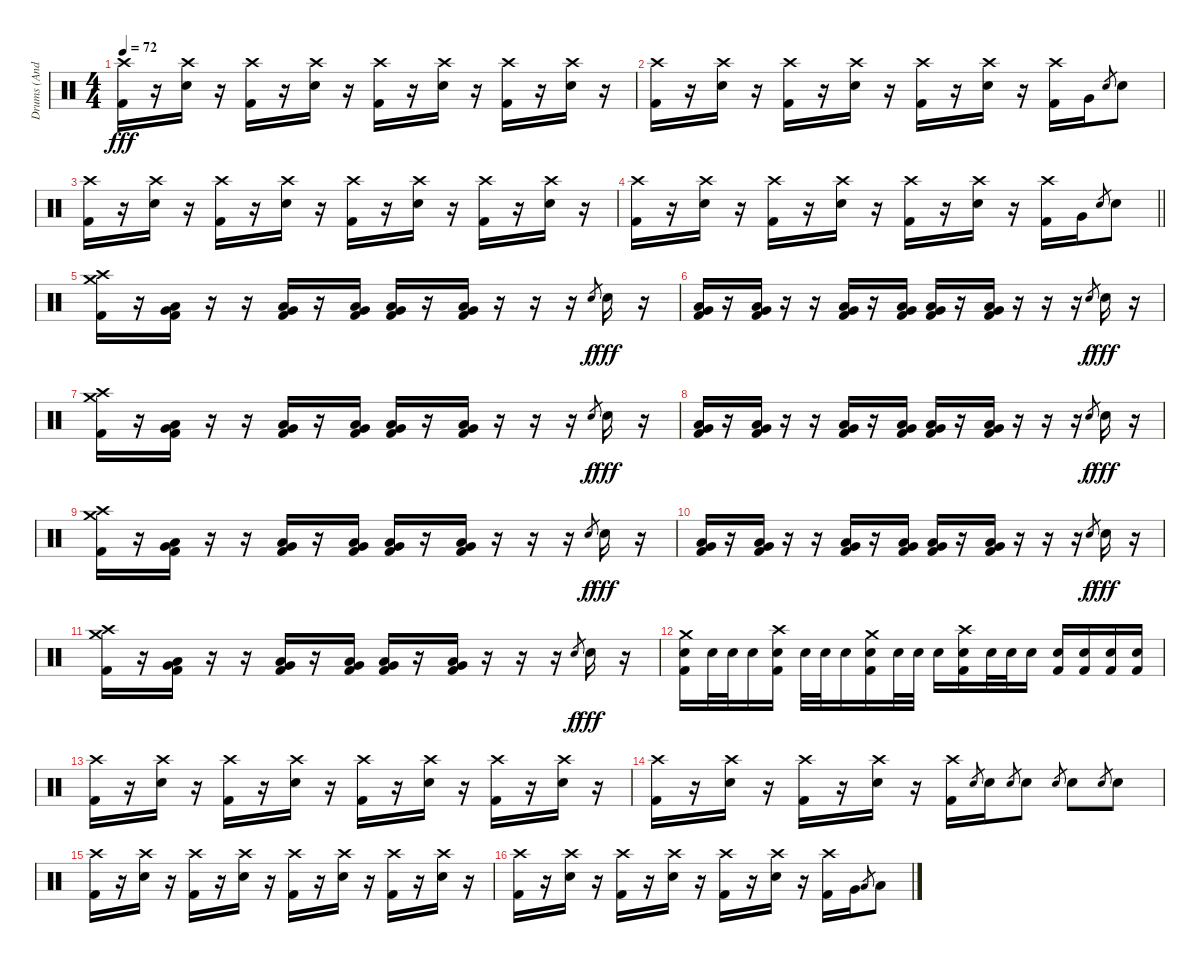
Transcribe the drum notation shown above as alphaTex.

\track ("Drums (Andy)" "Drums (And") {instrument percussion}
\staff {score}
\articulation defaults
\ts (4 4)
\tempo 72
\clef neutral
\ks c
("Crash high (hit)" "Kick (hit) 2").16{dy fff} r.16 ("Crash high (hit)" "Snare (hit) 2").16 r.16 ("Crash high (hit)" "Kick (hit) 2").16 r.16 ("Crash high (hit)" "Snare (hit) 2").16 r.16 ("Crash high (hit)" "Kick (hit) 2").16 r.16 ("Crash high (hit)" "Snare (hit) 2").16 r.16 ("Crash high (hit)" "Kick (hit) 2").16 r.16 ("Crash high (hit)" "Snare (hit) 2").16 r.16 |
("Crash high (hit)" "Kick (hit) 2").16 r.16 ("Crash high (hit)" "Snare (hit) 2").16 r.16 ("Crash high (hit)" "Kick (hit) 2").16 r.16 ("Crash high (hit)" "Snare (hit) 2").16 r.16 ("Crash high (hit)" "Kick (hit) 2").16 r.16 ("Crash high (hit)" "Snare (hit) 2").16 r.16 ("Crash high (hit)" "Kick (hit) 2").16 "Very Low Tom (hit)".16 "Snare (hit) 2".8{gr} "Snare (hit) 2".8 |
("Crash high (hit)" "Kick (hit) 2").16 r.16 ("Crash high (hit)" "Snare (hit) 2").16 r.16 ("Crash high (hit)" "Kick (hit) 2").16 r.16 ("Crash high (hit)" "Snare (hit) 2").16 r.16 ("Crash high (hit)" "Kick (hit) 2").16 r.16 ("Crash high (hit)" "Snare (hit) 2").16 r.16 ("Crash high (hit)" "Kick (hit) 2").16 r.16 ("Crash high (hit)" "Snare (hit) 2").16 r.16 |
\barLineRight lightlight
("Crash high (hit)" "Kick (hit) 2").16 r.16 ("Crash high (hit)" "Snare (hit) 2").16 r.16 ("Crash high (hit)" "Kick (hit) 2").16 r.16 ("Crash high (hit)" "Snare (hit) 2").16 r.16 ("Crash high (hit)" "Kick (hit) 2").16 r.16 ("Crash high (hit)" "Snare (hit) 2").16 r.16 ("Crash high (hit)" "Kick (hit) 2").16 "Very Low Tom (hit)".16 "Snare (hit) 2".8{gr} "Snare (hit) 2".8 |
("Crash medium (hit)" "Crash high (hit)" "Kick (hit) 2").16 r.16 ("Low Floor Tom (hit)" "Very Low Tom (hit)" "Kick (hit) 2").16 r.16 r.16 ("Low Floor Tom (hit)" "Very Low Tom (hit)" "Kick (hit) 2").16 r.16 ("Low Floor Tom (hit)" "Very Low Tom (hit)" "Kick (hit) 2").16 ("Low Floor Tom (hit)" "Very Low Tom (hit)" "Kick (hit) 2").16 r.16 ("Low Floor Tom (hit)" "Very Low Tom (hit)" "Kick (hit) 2").16 r.16 r.16 r.16 "Snare (hit) 2".8{gr dy f} "Snare (hit) 2".16{dy fff} r.16 |
("Low Floor Tom (hit)" "Very Low Tom (hit)" "Kick (hit) 2").16 r.16 ("Low Floor Tom (hit)" "Very Low Tom (hit)" "Kick (hit) 2").16 r.16 r.16 ("Low Floor Tom (hit)" "Very Low Tom (hit)" "Kick (hit) 2").16 r.16 ("Low Floor Tom (hit)" "Very Low Tom (hit)" "Kick (hit) 2").16 ("Low Floor Tom (hit)" "Very Low Tom (hit)" "Kick (hit) 2").16 r.16 ("Low Floor Tom (hit)" "Very Low Tom (hit)" "Kick (hit) 2").16 r.16 r.16 r.16 "Snare (hit) 2".8{gr dy f} "Snare (hit) 2".16{dy fff} r.16 |
("Crash medium (hit)" "Crash high (hit)" "Kick (hit) 2").16 r.16 ("Low Floor Tom (hit)" "Very Low Tom (hit)" "Kick (hit) 2").16 r.16 r.16 ("Low Floor Tom (hit)" "Very Low Tom (hit)" "Kick (hit) 2").16 r.16 ("Low Floor Tom (hit)" "Very Low Tom (hit)" "Kick (hit) 2").16 ("Low Floor Tom (hit)" "Very Low Tom (hit)" "Kick (hit) 2").16 r.16 ("Low Floor Tom (hit)" "Very Low Tom (hit)" "Kick (hit) 2").16 r.16 r.16 r.16 "Snare (hit) 2".8{gr dy f} "Snare (hit) 2".16{dy fff} r.16 |
("Low Floor Tom (hit)" "Very Low Tom (hit)" "Kick (hit) 2").16 r.16 ("Low Floor Tom (hit)" "Very Low Tom (hit)" "Kick (hit) 2").16 r.16 r.16 ("Low Floor Tom (hit)" "Very Low Tom (hit)" "Kick (hit) 2").16 r.16 ("Low Floor Tom (hit)" "Very Low Tom (hit)" "Kick (hit) 2").16 ("Low Floor Tom (hit)" "Very Low Tom (hit)" "Kick (hit) 2").16 r.16 ("Low Floor Tom (hit)" "Very Low Tom (hit)" "Kick (hit) 2").16 r.16 r.16 r.16 "Snare (hit) 2".8{gr dy f} "Snare (hit) 2".16{dy fff} r.16 |
("Crash medium (hit)" "Crash high (hit)" "Kick (hit) 2").16 r.16 ("Low Floor Tom (hit)" "Very Low Tom (hit)" "Kick (hit) 2").16 r.16 r.16 ("Low Floor Tom (hit)" "Very Low Tom (hit)" "Kick (hit) 2").16 r.16 ("Low Floor Tom (hit)" "Very Low Tom (hit)" "Kick (hit) 2").16 ("Low Floor Tom (hit)" "Very Low Tom (hit)" "Kick (hit) 2").16 r.16 ("Low Floor Tom (hit)" "Very Low Tom (hit)" "Kick (hit) 2").16 r.16 r.16 r.16 "Snare (hit) 2".8{gr dy f} "Snare (hit) 2".16{dy fff} r.16 |
("Low Floor Tom (hit)" "Very Low Tom (hit)" "Kick (hit) 2").16 r.16 ("Low Floor Tom (hit)" "Very Low Tom (hit)" "Kick (hit) 2").16 r.16 r.16 ("Low Floor Tom (hit)" "Very Low Tom (hit)" "Kick (hit) 2").16 r.16 ("Low Floor Tom (hit)" "Very Low Tom (hit)" "Kick (hit) 2").16 ("Low Floor Tom (hit)" "Very Low Tom (hit)" "Kick (hit) 2").16 r.16 ("Low Floor Tom (hit)" "Very Low Tom (hit)" "Kick (hit) 2").16 r.16 r.16 r.16 "Snare (hit) 2".8{gr dy f} "Snare (hit) 2".16{dy fff} r.16 |
("Crash medium (hit)" "Crash high (hit)" "Kick (hit) 2").16 r.16 ("Low Floor Tom (hit)" "Very Low Tom (hit)" "Kick (hit) 2").16 r.16 r.16 ("Low Floor Tom (hit)" "Very Low Tom (hit)" "Kick (hit) 2").16 r.16 ("Low Floor Tom (hit)" "Very Low Tom (hit)" "Kick (hit) 2").16 ("Low Floor Tom (hit)" "Very Low Tom (hit)" "Kick (hit) 2").16 r.16 ("Low Floor Tom (hit)" "Very Low Tom (hit)" "Kick (hit) 2").16 r.16 r.16 r.16 "Snare (hit) 2".8{gr dy f} "Snare (hit) 2".16{dy fff} r.16 |
("Crash medium (hit)" "Snare (hit) 2" "Kick (hit) 2").16 "Snare (hit) 2".32 "Snare (hit) 2".32 "Snare (hit) 2".16 ("Crash high (hit)" "Snare (hit) 2" "Kick (hit) 2").16 "Snare (hit) 2".32 "Snare (hit) 2".32 "Snare (hit) 2".16 ("Crash medium (hit)" "Snare (hit) 2" "Kick (hit) 2").16 "Snare (hit) 2".32 "Snare (hit) 2".32 "Snare (hit) 2".16 ("Crash high (hit)" "Snare (hit) 2" "Kick (hit) 2").16 "Snare (hit) 2".32 "Snare (hit) 2".32 "Snare (hit) 2".16 ("Snare (hit) 2" "Kick (hit) 2").16 ("Snare (hit) 2" "Kick (hit) 2").16 ("Snare (hit) 2" "Kick (hit) 2").16 ("Snare (hit) 2" "Kick (hit) 2").16 |
("Crash high (hit)" "Kick (hit) 2").16 r.16 ("Crash high (hit)" "Snare (hit) 2").16 r.16 ("Crash high (hit)" "Kick (hit) 2").16 r.16 ("Crash high (hit)" "Snare (hit) 2").16 r.16 ("Crash high (hit)" "Kick (hit) 2").16 r.16 ("Crash high (hit)" "Snare (hit) 2").16 r.16 ("Crash high (hit)" "Kick (hit) 2").16 r.16 ("Crash high (hit)" "Snare (hit) 2").16 r.16 |
("Crash high (hit)" "Kick (hit) 2").16 r.16 ("Crash high (hit)" "Snare (hit) 2").16 r.16 ("Crash high (hit)" "Kick (hit) 2").16 r.16 ("Crash high (hit)" "Snare (hit) 2").16 r.16 ("Crash high (hit)" "Kick (hit) 2").16 "Snare (hit) 2".8{gr} "Snare (hit) 2".16 "Snare (hit) 2".8{gr} "Snare (hit) 2".8 "Snare (hit) 2".8{gr} "Snare (hit) 2".8 "Snare (hit) 2".8{gr} "Snare (hit) 2".8 |
("Crash high (hit)" "Kick (hit) 2").16 r.16 ("Crash high (hit)" "Snare (hit) 2").16 r.16 ("Crash high (hit)" "Kick (hit) 2").16 r.16 ("Crash high (hit)" "Snare (hit) 2").16 r.16 ("Crash high (hit)" "Kick (hit) 2").16 r.16 ("Crash high (hit)" "Snare (hit) 2").16 r.16 ("Crash high (hit)" "Kick (hit) 2").16 r.16 ("Crash high (hit)" "Snare (hit) 2").16 r.16 |
("Crash high (hit)" "Kick (hit) 2").16 r.16 ("Crash high (hit)" "Snare (hit) 2").16 r.16 ("Crash high (hit)" "Kick (hit) 2").16 r.16 ("Crash high (hit)" "Snare (hit) 2").16 r.16 ("Crash high (hit)" "Kick (hit) 2").16 r.16 ("Crash high (hit)" "Snare (hit) 2").16 r.16 ("Crash high (hit)" "Kick (hit) 2").16 "Very Low Tom (hit)".16 "Low Floor Tom (hit)".8{gr} "Low Floor Tom (hit)".8
